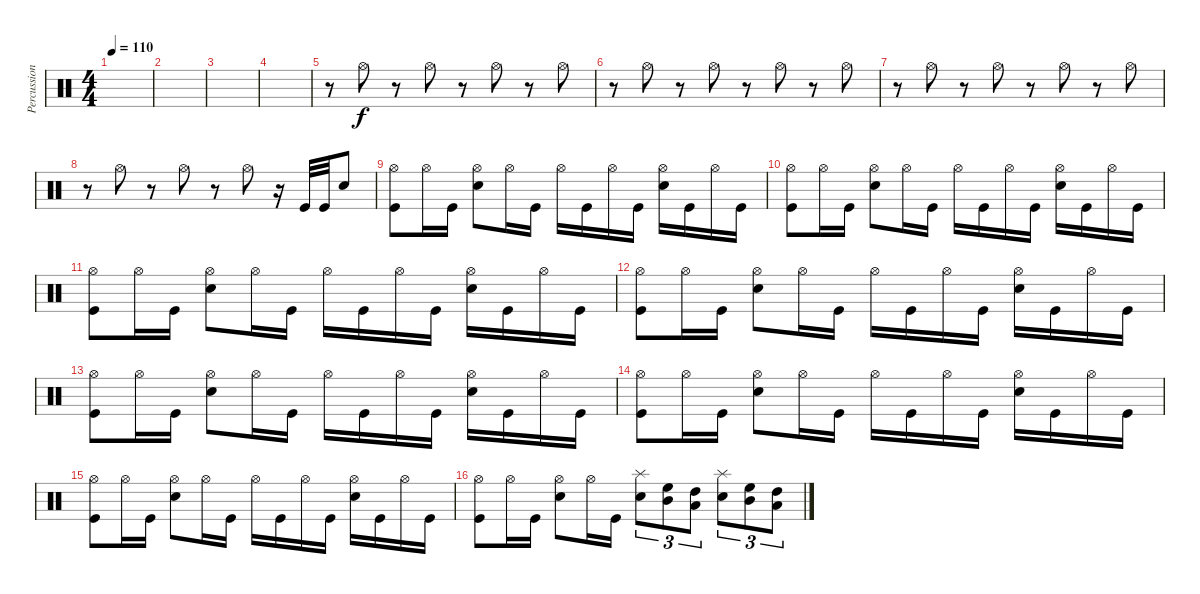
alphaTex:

\track ("Percussions" "Percussion") {instrument percussion}
\staff {score}
\articulation defaults
\ts (4 4)
\tempo 110
\clef neutral
\ks c
|
|
|
|
r.8 "Hi-Hat (open)".8{dy f} r.8 "Hi-Hat (open)".8 r.8 "Hi-Hat (open)".8 r.8 "Hi-Hat (open)".8 |
r.8 "Hi-Hat (open)".8 r.8 "Hi-Hat (open)".8 r.8 "Hi-Hat (open)".8 r.8 "Hi-Hat (open)".8 |
r.8 "Hi-Hat (open)".8 r.8 "Hi-Hat (open)".8 r.8 "Hi-Hat (open)".8 r.8 "Hi-Hat (open)".8 |
r.8 "Hi-Hat (open)".8 r.8 "Hi-Hat (open)".8 r.8 "Hi-Hat (open)".8 r.16 "Kick (hit)".32 "Kick (hit)".32 "Electric Snare (hit)".8 |
("Hi-Hat (open)" "Kick (hit)").8 "Hi-Hat (open)".16 "Kick (hit)".16 ("Hi-Hat (open)" "Electric Snare (hit)").8 "Hi-Hat (open)".16 "Kick (hit)".16 "Hi-Hat (open)".16 "Kick (hit)".16 "Hi-Hat (open)".16 "Kick (hit)".16 ("Hi-Hat (open)" "Electric Snare (hit)").16 "Kick (hit)".16 "Hi-Hat (open)".16 "Kick (hit)".16 |
("Hi-Hat (open)" "Kick (hit)").8 "Hi-Hat (open)".16 "Kick (hit)".16 ("Hi-Hat (open)" "Electric Snare (hit)").8 "Hi-Hat (open)".16 "Kick (hit)".16 "Hi-Hat (open)".16 "Kick (hit)".16 "Hi-Hat (open)".16 "Kick (hit)".16 ("Hi-Hat (open)" "Electric Snare (hit)").16 "Kick (hit)".16 "Hi-Hat (open)".16 "Kick (hit)".16 |
("Hi-Hat (open)" "Kick (hit)").8 "Hi-Hat (open)".16 "Kick (hit)".16 ("Hi-Hat (open)" "Electric Snare (hit)").8 "Hi-Hat (open)".16 "Kick (hit)".16 "Hi-Hat (open)".16 "Kick (hit)".16 "Hi-Hat (open)".16 "Kick (hit)".16 ("Hi-Hat (open)" "Electric Snare (hit)").16 "Kick (hit)".16 "Hi-Hat (open)".16 "Kick (hit)".16 |
("Hi-Hat (open)" "Kick (hit)").8 "Hi-Hat (open)".16 "Kick (hit)".16 ("Hi-Hat (open)" "Electric Snare (hit)").8 "Hi-Hat (open)".16 "Kick (hit)".16 "Hi-Hat (open)".16 "Kick (hit)".16 "Hi-Hat (open)".16 "Kick (hit)".16 ("Hi-Hat (open)" "Electric Snare (hit)").16 "Kick (hit)".16 "Hi-Hat (open)".16 "Kick (hit)".16 |
("Hi-Hat (open)" "Kick (hit)").8 "Hi-Hat (open)".16 "Kick (hit)".16 ("Hi-Hat (open)" "Electric Snare (hit)").8 "Hi-Hat (open)".16 "Kick (hit)".16 "Hi-Hat (open)".16 "Kick (hit)".16 "Hi-Hat (open)".16 "Kick (hit)".16 ("Hi-Hat (open)" "Electric Snare (hit)").16 "Kick (hit)".16 "Hi-Hat (open)".16 "Kick (hit)".16 |
("Hi-Hat (open)" "Kick (hit)").8 "Hi-Hat (open)".16 "Kick (hit)".16 ("Hi-Hat (open)" "Electric Snare (hit)").8 "Hi-Hat (open)".16 "Kick (hit)".16 "Hi-Hat (open)".16 "Kick (hit)".16 "Hi-Hat (open)".16 "Kick (hit)".16 ("Hi-Hat (open)" "Electric Snare (hit)").16 "Kick (hit)".16 "Hi-Hat (open)".16 "Kick (hit)".16 |
("Hi-Hat (open)" "Kick (hit)").8 "Hi-Hat (open)".16 "Kick (hit)".16 ("Hi-Hat (open)" "Electric Snare (hit)").8 "Hi-Hat (open)".16 "Kick (hit)".16 "Hi-Hat (open)".16 "Kick (hit)".16 "Hi-Hat (open)".16 "Kick (hit)".16 ("Hi-Hat (open)" "Electric Snare (hit)").16 "Kick (hit)".16 "Hi-Hat (open)".16 "Kick (hit)".16 |
("Hi-Hat (open)" "Kick (hit)").8 "Hi-Hat (open)".16 "Kick (hit)".16 ("Hi-Hat (open)" "Electric Snare (hit)").8 "Hi-Hat (open)".16 "Kick (hit)".16 ("Splash (hit)" "Electric Snare (hit)").8{tu (3 2)} ("High Floor Tom (hit)" "Mid Tom (hit)").8{tu (3 2)} ("High Tom (hit)" "Low Floor Tom (hit)").8{tu (3 2)} ("Splash (hit)" "Electric Snare (hit)").8{tu (3 2)} ("High Floor Tom (hit)" "Mid Tom (hit)").8{tu (3 2)} ("High Tom (hit)" "Low Floor Tom (hit)").8{tu (3 2)}
